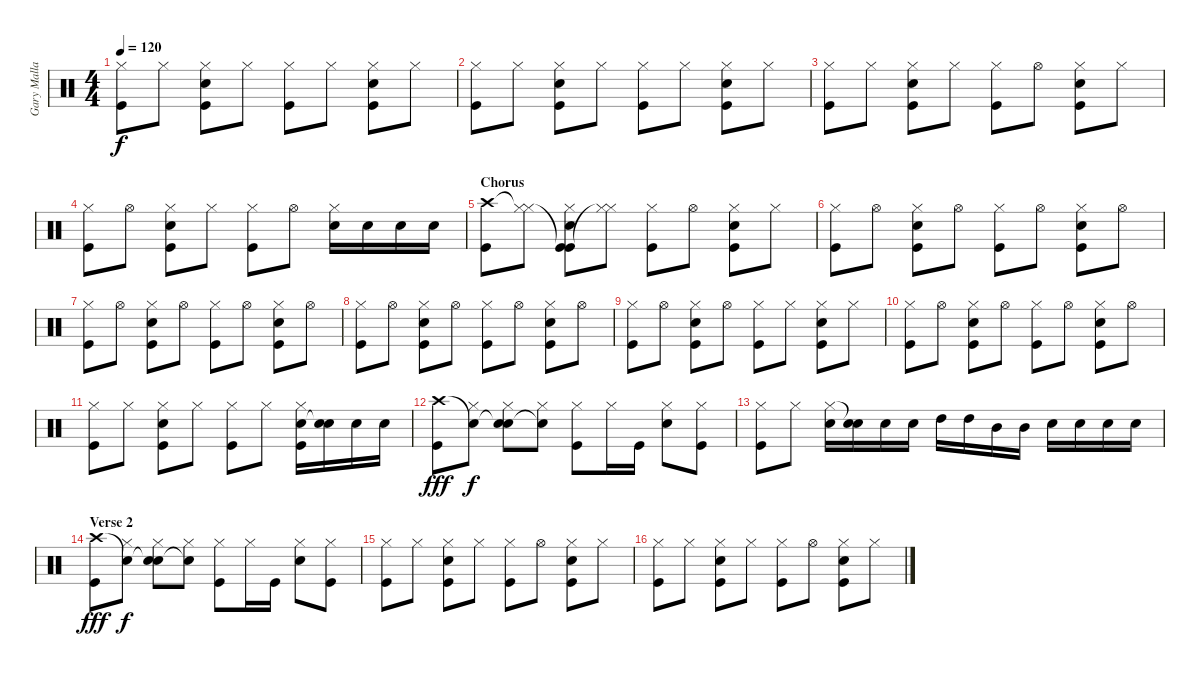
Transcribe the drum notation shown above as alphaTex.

\track ("Gary Mallaber" "Gary Malla") {instrument percussion}
\staff {score}
\articulation defaults
\ts (4 4)
\tempo 120
\clef neutral
\ks c
("Hi-Hat (closed)" "Kick (hit)").8{dy f} "Hi-Hat (closed)".8 ("Hi-Hat (closed)" "Snare (hit) 2" "Kick (hit)").8 "Hi-Hat (closed)".8 ("Hi-Hat (closed)" "Kick (hit)").8 "Hi-Hat (closed)".8 ("Hi-Hat (closed)" "Snare (hit) 2" "Kick (hit)").8 "Hi-Hat (closed)".8 |
("Hi-Hat (closed)" "Kick (hit)").8 "Hi-Hat (closed)".8 ("Hi-Hat (closed)" "Snare (hit) 2" "Kick (hit)").8 "Hi-Hat (closed)".8 ("Hi-Hat (closed)" "Kick (hit)").8 "Hi-Hat (closed)".8 ("Hi-Hat (closed)" "Snare (hit) 2" "Kick (hit)").8 "Hi-Hat (closed)".8 |
("Hi-Hat (closed)" "Kick (hit)").8 "Hi-Hat (closed)".8 ("Hi-Hat (closed)" "Snare (hit) 2" "Kick (hit)").8 "Hi-Hat (closed)".8 ("Hi-Hat (closed)" "Kick (hit)").8 "Hi-Hat (open)".8 ("Hi-Hat (closed)" "Snare (hit) 2" "Kick (hit)").8 "Hi-Hat (closed)".8 |
("Hi-Hat (closed)" "Kick (hit)").8 "Hi-Hat (open)".8 ("Hi-Hat (closed)" "Snare (hit) 2" "Kick (hit)").8 "Hi-Hat (closed)".8 ("Hi-Hat (closed)" "Kick (hit)").8 "Hi-Hat (open)".8 ("Hi-Hat (closed)" "Snare (hit) 2").16 "Snare (hit) 2".16 "Snare (hit) 2".16 "Snare (hit) 2".16 |
\section ("" "Chorus")
("Crash high (hit)" "Kick (hit)").8 ("Hi-Hat (closed)"{t} "Hi-Hat (closed)").8 ("Kick (hit)"{t} "Hi-Hat (closed)" "Snare (hit) 2" "Kick (hit)").8 ("Hi-Hat (closed)"{t} "Hi-Hat (closed)").8 ("Hi-Hat (closed)" "Kick (hit)").8 "Hi-Hat (open)".8 ("Hi-Hat (closed)" "Snare (hit) 2" "Kick (hit)").8 "Hi-Hat (closed)".8 |
("Hi-Hat (closed)" "Kick (hit)").8 "Hi-Hat (open)".8 ("Hi-Hat (closed)" "Snare (hit) 2" "Kick (hit)").8 "Hi-Hat (open)".8 ("Hi-Hat (closed)" "Kick (hit)").8 "Hi-Hat (open)".8 ("Hi-Hat (closed)" "Snare (hit) 2" "Kick (hit)").8 "Hi-Hat (open)".8 |
("Hi-Hat (closed)" "Kick (hit)").8 "Hi-Hat (open)".8 ("Hi-Hat (closed)" "Snare (hit) 2" "Kick (hit)").8 "Hi-Hat (open)".8 ("Hi-Hat (closed)" "Kick (hit)").8 "Hi-Hat (open)".8 ("Hi-Hat (closed)" "Snare (hit) 2" "Kick (hit)").8 "Hi-Hat (open)".8 |
("Hi-Hat (closed)" "Kick (hit)").8 "Hi-Hat (open)".8 ("Hi-Hat (closed)" "Snare (hit) 2" "Kick (hit)").8 "Hi-Hat (open)".8 ("Hi-Hat (closed)" "Kick (hit)").8 "Hi-Hat (open)".8 ("Hi-Hat (closed)" "Snare (hit) 2" "Kick (hit)").8 "Hi-Hat (open)".8 |
("Hi-Hat (closed)" "Kick (hit)").8 "Hi-Hat (open)".8 ("Hi-Hat (closed)" "Snare (hit) 2" "Kick (hit)").8 "Hi-Hat (open)".8 ("Hi-Hat (closed)" "Kick (hit)").8 "Hi-Hat (closed)".8 ("Hi-Hat (closed)" "Snare (hit) 2" "Kick (hit)").8 "Hi-Hat (closed)".8 |
("Hi-Hat (closed)" "Kick (hit)").8 "Hi-Hat (open)".8 ("Hi-Hat (closed)" "Snare (hit) 2" "Kick (hit)").8 "Hi-Hat (open)".8 ("Hi-Hat (closed)" "Kick (hit)").8 "Hi-Hat (open)".8 ("Hi-Hat (closed)" "Snare (hit) 2" "Kick (hit)").8 "Hi-Hat (open)".8 |
("Hi-Hat (closed)" "Kick (hit)").8 "Hi-Hat (closed)".8 ("Hi-Hat (closed)" "Snare (hit) 2" "Kick (hit)").8 "Hi-Hat (closed)".8 ("Hi-Hat (closed)" "Kick (hit)").8 "Hi-Hat (closed)".8 ("Hi-Hat (closed)" "Snare (hit) 2" "Kick (hit)").16 ("Snare (hit) 2" "Snare (hit)"{t}).16 "Snare (hit) 2".16 "Snare (hit) 2".16 |
("Crash high (hit)" "Kick (hit)").8{dy fff} ("Snare (hit)"{t} "Hi-Hat (closed)").8{dy f} ("Snare (hit)"{t} "Hi-Hat (closed)" "Snare (hit) 2").8 ("Snare (hit)"{t} "Hi-Hat (closed)").8 ("Hi-Hat (closed)" "Kick (hit)").8 "Hi-Hat (closed)".16 "Kick (hit)".16 ("Hi-Hat (closed)" "Snare (hit) 2").8 ("Hi-Hat (closed)" "Kick (hit)").8 |
("Hi-Hat (closed)" "Kick (hit)").8 "Hi-Hat (closed)".8 ("Hi-Hat (closed)" "Snare (hit) 2").16 ("Snare (hit)"{t} "Snare (hit) 2").16 "Snare (hit) 2".16 "Snare (hit) 2".16 "High Tom (hit)".16 "High Tom (hit)".16 "Mid Tom (hit)".16 "Mid Tom (hit)".16 "Snare (hit) 2".16 "Snare (hit) 2".16 "Snare (hit) 2".16 "Snare (hit) 2".16 |
\section ("" "Verse 2")
("Crash high (hit)" "Kick (hit)").8{dy fff} ("Snare (hit)"{t} "Hi-Hat (closed)").8{dy f} ("Snare (hit)"{t} "Hi-Hat (closed)" "Snare (hit) 2").8 ("Snare (hit)"{t} "Hi-Hat (closed)").8 ("Hi-Hat (closed)" "Kick (hit)").8 "Hi-Hat (closed)".16 "Kick (hit)".16 ("Hi-Hat (closed)" "Snare (hit) 2").8 ("Hi-Hat (closed)" "Kick (hit)").8 |
("Hi-Hat (closed)" "Kick (hit)").8 "Hi-Hat (closed)".8 ("Hi-Hat (closed)" "Snare (hit) 2" "Kick (hit)").8 "Hi-Hat (closed)".8 ("Hi-Hat (closed)" "Kick (hit)").8 "Hi-Hat (open)".8 ("Hi-Hat (closed)" "Snare (hit) 2" "Kick (hit)").8 "Hi-Hat (closed)".8 |
("Hi-Hat (closed)" "Kick (hit)").8 "Hi-Hat (closed)".8 ("Hi-Hat (closed)" "Snare (hit) 2" "Kick (hit)").8 "Hi-Hat (closed)".8 ("Hi-Hat (closed)" "Kick (hit)").8 "Hi-Hat (open)".8 ("Hi-Hat (closed)" "Snare (hit) 2" "Kick (hit)").8 "Hi-Hat (closed)".8
